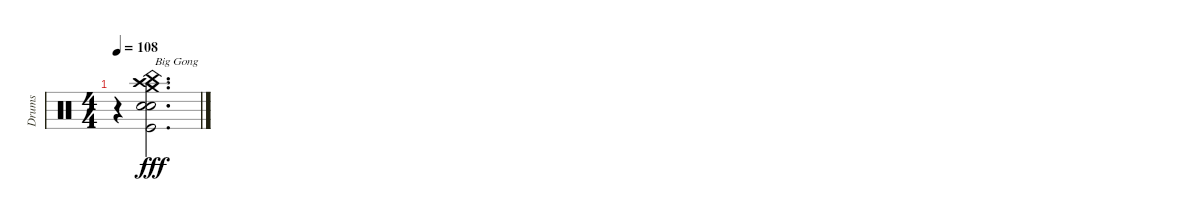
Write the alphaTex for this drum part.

\track ("Drums" "Drums") {instrument percussion}
\staff {score}
\articulation defaults
\ts (4 4)
\tempo 108
\clef neutral
\ks c
r.4{dy fff} ("Crash medium (hit)" "Crash high (hit)" "China (hit)" "Electric Snare (hit)" "Snare (hit) 2" "Kick (hit)").2{d txt "Big Gong"}
